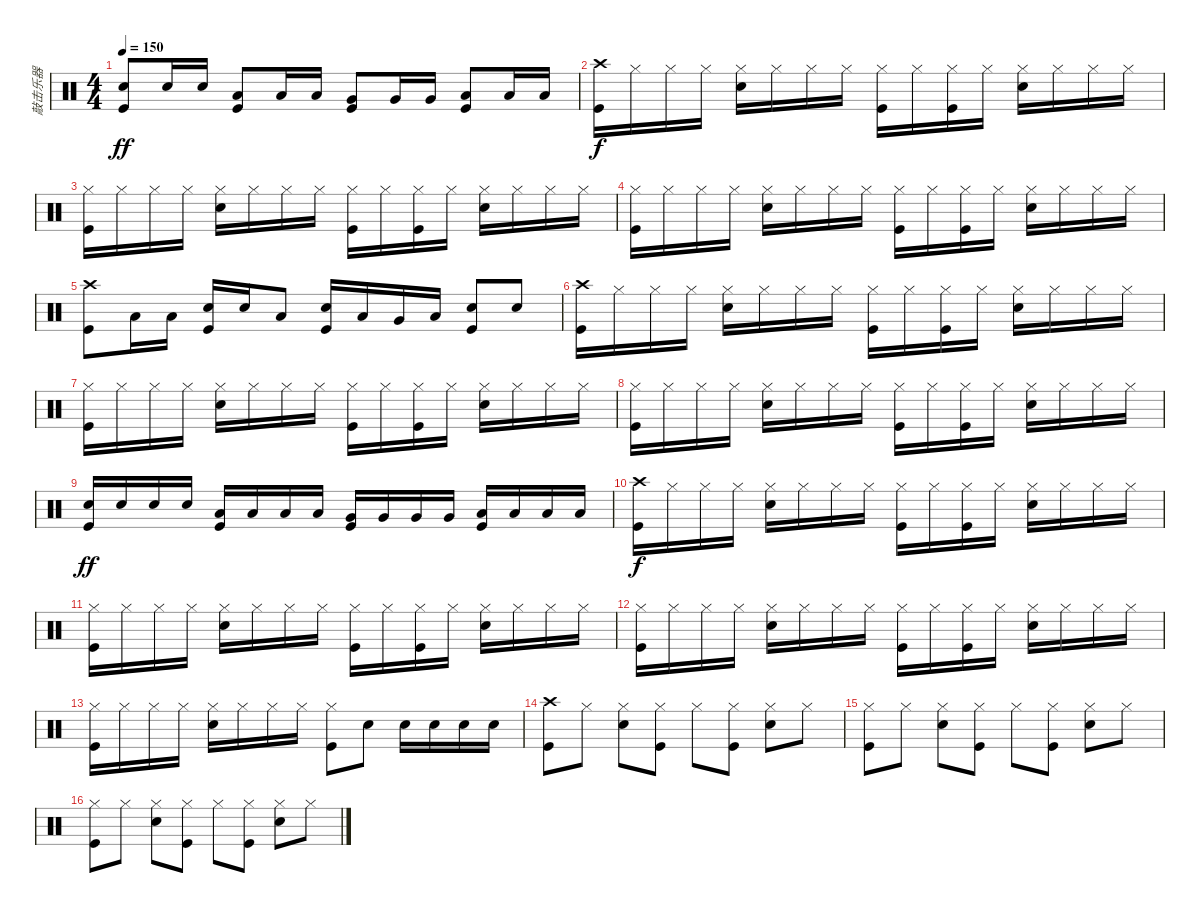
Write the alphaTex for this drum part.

\track ("敲击乐器" "敲击乐器") {instrument percussion}
\staff {score}
\articulation defaults
\ts (4 4)
\tempo 150
\clef neutral
\ks c
("Snare (hit) 2" "Kick (hit)").8{dy ff} "Snare (hit) 2".16 "Snare (hit) 2".16 ("Low Tom (hit)" "Kick (hit)").8 "Low Tom (hit)".16 "Low Tom (hit)".16 ("Very Low Tom (hit)" "Kick (hit)").8 "Very Low Tom (hit)".16 "Very Low Tom (hit)".16 ("Low Floor Tom (hit)" "Kick (hit)").8 "Low Floor Tom (hit)".16 "Low Floor Tom (hit)".16 |
("Crash high (hit)" "Kick (hit)").16{dy f} "Hi-Hat (closed)".16 "Hi-Hat (closed)".16 "Hi-Hat (closed)".16 ("Hi-Hat (closed)" "Snare (hit) 2").16 "Hi-Hat (closed)".16 "Hi-Hat (closed)".16 "Hi-Hat (closed)".16 ("Hi-Hat (closed)" "Kick (hit)").16 "Hi-Hat (closed)".16 ("Hi-Hat (closed)" "Kick (hit)").16 "Hi-Hat (closed)".16 ("Hi-Hat (closed)" "Snare (hit) 2").16 "Hi-Hat (closed)".16 "Hi-Hat (closed)".16 "Hi-Hat (closed)".16 |
("Hi-Hat (closed)" "Kick (hit)").16 "Hi-Hat (closed)".16 "Hi-Hat (closed)".16 "Hi-Hat (closed)".16 ("Hi-Hat (closed)" "Snare (hit) 2").16 "Hi-Hat (closed)".16 "Hi-Hat (closed)".16 "Hi-Hat (closed)".16 ("Hi-Hat (closed)" "Kick (hit)").16 "Hi-Hat (closed)".16 ("Hi-Hat (closed)" "Kick (hit)").16 "Hi-Hat (closed)".16 ("Hi-Hat (closed)" "Snare (hit) 2").16 "Hi-Hat (closed)".16 "Hi-Hat (closed)".16 "Hi-Hat (closed)".16 |
("Hi-Hat (closed)" "Kick (hit)").16 "Hi-Hat (closed)".16 "Hi-Hat (closed)".16 "Hi-Hat (closed)".16 ("Hi-Hat (closed)" "Snare (hit) 2").16 "Hi-Hat (closed)".16 "Hi-Hat (closed)".16 "Hi-Hat (closed)".16 ("Hi-Hat (closed)" "Kick (hit)").16 "Hi-Hat (closed)".16 ("Hi-Hat (closed)" "Kick (hit)").16 "Hi-Hat (closed)".16 ("Hi-Hat (closed)" "Snare (hit) 2").16 "Hi-Hat (closed)".16 "Hi-Hat (closed)".16 "Hi-Hat (closed)".16 |
("Kick (hit)" "Crash high (hit)").8 "Low Tom (hit)".16 "Low Tom (hit)".16 ("Snare (hit) 2" "Kick (hit)").16 "Snare (hit) 2".16 "Low Tom (hit)".8 ("Snare (hit) 2" "Kick (hit)").16 "Low Tom (hit)".16 "Very Low Tom (hit)".16 "Low Floor Tom (hit)".16 ("Snare (hit) 2" "Kick (hit)").8 "Snare (hit) 2".8 |
("Crash high (hit)" "Kick (hit)").16 "Hi-Hat (closed)".16 "Hi-Hat (closed)".16 "Hi-Hat (closed)".16 ("Hi-Hat (closed)" "Snare (hit) 2").16 "Hi-Hat (closed)".16 "Hi-Hat (closed)".16 "Hi-Hat (closed)".16 ("Hi-Hat (closed)" "Kick (hit)").16 "Hi-Hat (closed)".16 ("Hi-Hat (closed)" "Kick (hit)").16 "Hi-Hat (closed)".16 ("Hi-Hat (closed)" "Snare (hit) 2").16 "Hi-Hat (closed)".16 "Hi-Hat (closed)".16 "Hi-Hat (closed)".16 |
("Hi-Hat (closed)" "Kick (hit)").16 "Hi-Hat (closed)".16 "Hi-Hat (closed)".16 "Hi-Hat (closed)".16 ("Hi-Hat (closed)" "Snare (hit) 2").16 "Hi-Hat (closed)".16 "Hi-Hat (closed)".16 "Hi-Hat (closed)".16 ("Hi-Hat (closed)" "Kick (hit)").16 "Hi-Hat (closed)".16 ("Hi-Hat (closed)" "Kick (hit)").16 "Hi-Hat (closed)".16 ("Hi-Hat (closed)" "Snare (hit) 2").16 "Hi-Hat (closed)".16 "Hi-Hat (closed)".16 "Hi-Hat (closed)".16 |
("Hi-Hat (closed)" "Kick (hit)").16 "Hi-Hat (closed)".16 "Hi-Hat (closed)".16 "Hi-Hat (closed)".16 ("Hi-Hat (closed)" "Snare (hit) 2").16 "Hi-Hat (closed)".16 "Hi-Hat (closed)".16 "Hi-Hat (closed)".16 ("Hi-Hat (closed)" "Kick (hit)").16 "Hi-Hat (closed)".16 ("Hi-Hat (closed)" "Kick (hit)").16 "Hi-Hat (closed)".16 ("Hi-Hat (closed)" "Snare (hit) 2").16 "Hi-Hat (closed)".16 "Hi-Hat (closed)".16 "Hi-Hat (closed)".16 |
("Snare (hit) 2" "Kick (hit)").16{dy ff} "Snare (hit) 2".16 "Snare (hit) 2".16 "Snare (hit) 2".16 ("Low Tom (hit)" "Kick (hit)").16 "Low Tom (hit)".16 "Low Tom (hit)".16 "Low Tom (hit)".16 ("Very Low Tom (hit)" "Kick (hit)").16 "Very Low Tom (hit)".16 "Very Low Tom (hit)".16 "Very Low Tom (hit)".16 ("Low Floor Tom (hit)" "Kick (hit)").16 "Low Floor Tom (hit)".16 "Low Floor Tom (hit)".16 "Low Floor Tom (hit)".16 |
("Crash high (hit)" "Kick (hit)").16{dy f} "Hi-Hat (closed)".16 "Hi-Hat (closed)".16 "Hi-Hat (closed)".16 ("Hi-Hat (closed)" "Snare (hit) 2").16 "Hi-Hat (closed)".16 "Hi-Hat (closed)".16 "Hi-Hat (closed)".16 ("Hi-Hat (closed)" "Kick (hit)").16 "Hi-Hat (closed)".16 ("Hi-Hat (closed)" "Kick (hit)").16 "Hi-Hat (closed)".16 ("Hi-Hat (closed)" "Snare (hit) 2").16 "Hi-Hat (closed)".16 "Hi-Hat (closed)".16 "Hi-Hat (closed)".16 |
("Hi-Hat (closed)" "Kick (hit)").16 "Hi-Hat (closed)".16 "Hi-Hat (closed)".16 "Hi-Hat (closed)".16 ("Hi-Hat (closed)" "Snare (hit) 2").16 "Hi-Hat (closed)".16 "Hi-Hat (closed)".16 "Hi-Hat (closed)".16 ("Hi-Hat (closed)" "Kick (hit)").16 "Hi-Hat (closed)".16 ("Hi-Hat (closed)" "Kick (hit)").16 "Hi-Hat (closed)".16 ("Hi-Hat (closed)" "Snare (hit) 2").16 "Hi-Hat (closed)".16 "Hi-Hat (closed)".16 "Hi-Hat (closed)".16 |
("Hi-Hat (closed)" "Kick (hit)").16 "Hi-Hat (closed)".16 "Hi-Hat (closed)".16 "Hi-Hat (closed)".16 ("Hi-Hat (closed)" "Snare (hit) 2").16 "Hi-Hat (closed)".16 "Hi-Hat (closed)".16 "Hi-Hat (closed)".16 ("Hi-Hat (closed)" "Kick (hit)").16 "Hi-Hat (closed)".16 ("Hi-Hat (closed)" "Kick (hit)").16 "Hi-Hat (closed)".16 ("Hi-Hat (closed)" "Snare (hit) 2").16 "Hi-Hat (closed)".16 "Hi-Hat (closed)".16 "Hi-Hat (closed)".16 |
("Hi-Hat (closed)" "Kick (hit)").16 "Hi-Hat (closed)".16 "Hi-Hat (closed)".16 "Hi-Hat (closed)".16 ("Hi-Hat (closed)" "Snare (hit) 2").16 "Hi-Hat (closed)".16 "Hi-Hat (closed)".16 "Hi-Hat (closed)".16 ("Hi-Hat (closed)" "Kick (hit)").8 "Snare (hit) 2".8 "Snare (hit) 2".16 "Snare (hit) 2".16 "Snare (hit) 2".16 "Snare (hit) 2".16 |
("Crash high (hit)" "Kick (hit)").8 "Hi-Hat (closed)".8 ("Hi-Hat (closed)" "Snare (hit) 2").8 ("Hi-Hat (closed)" "Kick (hit)").8 "Hi-Hat (closed)".8 ("Hi-Hat (closed)" "Kick (hit)").8 ("Hi-Hat (closed)" "Snare (hit) 2").8 "Hi-Hat (closed)".8 |
("Hi-Hat (closed)" "Kick (hit)").8 "Hi-Hat (closed)".8 ("Hi-Hat (closed)" "Snare (hit) 2").8 ("Hi-Hat (closed)" "Kick (hit)").8 "Hi-Hat (closed)".8 ("Hi-Hat (closed)" "Kick (hit)").8 ("Hi-Hat (closed)" "Snare (hit) 2").8 "Hi-Hat (closed)".8 |
("Hi-Hat (closed)" "Kick (hit)").8 "Hi-Hat (closed)".8 ("Hi-Hat (closed)" "Snare (hit) 2").8 ("Hi-Hat (closed)" "Kick (hit)").8 "Hi-Hat (closed)".8 ("Hi-Hat (closed)" "Kick (hit)").8 ("Hi-Hat (closed)" "Snare (hit) 2").8 "Hi-Hat (closed)".8
